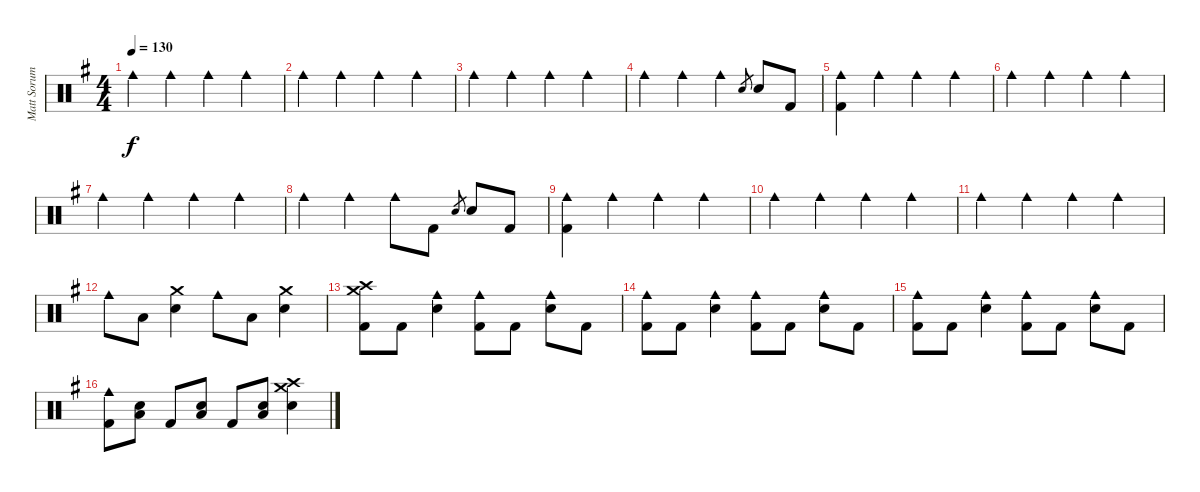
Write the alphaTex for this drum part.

\track ("Matt Sorum - Drums" "Matt Sorum") {instrument percussion}
\staff {score}
\articulation defaults
\ts (4 4)
\tempo 130
\clef neutral
\ks g "Cowbell medium (hit)".4{dy f} "Cowbell medium (hit)".4 "Cowbell medium (hit)".4 "Cowbell medium (hit)".4
|
"Cowbell medium (hit)".4 "Cowbell medium (hit)".4 "Cowbell medium (hit)".4 "Cowbell medium (hit)".4 |
"Cowbell medium (hit)".4 "Cowbell medium (hit)".4 "Cowbell medium (hit)".4 "Cowbell medium (hit)".4 |
"Cowbell medium (hit)".4 "Cowbell medium (hit)".4 "Cowbell medium (hit)".4 "Snare (hit) 2".8{gr} "Snare (hit) 2".8 "Kick (hit) 2".8 |
("Cowbell medium (hit)" "Kick (hit) 2").4 "Cowbell medium (hit)".4 "Cowbell medium (hit)".4 "Cowbell medium (hit)".4 |
"Cowbell medium (hit)".4 "Cowbell medium (hit)".4 "Cowbell medium (hit)".4 "Cowbell medium (hit)".4 |
"Cowbell medium (hit)".4 "Cowbell medium (hit)".4 "Cowbell medium (hit)".4 "Cowbell medium (hit)".4 |
"Cowbell medium (hit)".4 "Cowbell medium (hit)".4 "Cowbell medium (hit)".8 "Kick (hit) 2".8 "Snare (hit) 2".8{gr} "Snare (hit) 2".8 "Kick (hit) 2".8 |
("Cowbell medium (hit)" "Kick (hit) 2").4 "Cowbell medium (hit)".4 "Cowbell medium (hit)".4 "Cowbell medium (hit)".4 |
"Cowbell medium (hit)".4 "Cowbell medium (hit)".4 "Cowbell medium (hit)".4 "Cowbell medium (hit)".4 |
"Cowbell medium (hit)".4 "Cowbell medium (hit)".4 "Cowbell medium (hit)".4 "Cowbell medium (hit)".4 |
"Cowbell medium (hit)".8 "Low Tom (hit)".8 ("Crash medium (hit)" "Snare (hit) 2").4 "Cowbell medium (hit)".8 "Low Tom (hit)".8 ("Crash medium (hit)" "Snare (hit) 2").4 |
("Crash medium (hit)" "Crash high (hit)" "Kick (hit) 2").8 "Kick (hit) 2".8 ("Cowbell medium (hit)" "Snare (hit) 2").4 ("Cowbell medium (hit)" "Kick (hit) 2").8 "Kick (hit) 2".8 ("Cowbell medium (hit)" "Snare (hit) 2").8 "Kick (hit) 2".8 |
("Cowbell medium (hit)" "Kick (hit) 2").8 "Kick (hit) 2".8 ("Cowbell medium (hit)" "Snare (hit) 2").4 ("Cowbell medium (hit)" "Kick (hit) 2").8 "Kick (hit) 2".8 ("Cowbell medium (hit)" "Snare (hit) 2").8 "Kick (hit) 2".8 |
("Cowbell medium (hit)" "Kick (hit) 2").8 "Kick (hit) 2".8 ("Cowbell medium (hit)" "Snare (hit) 2").4 ("Cowbell medium (hit)" "Kick (hit) 2").8 "Kick (hit) 2".8 ("Cowbell medium (hit)" "Snare (hit) 2").8 "Kick (hit) 2".8 |
("Cowbell medium (hit)" "Kick (hit) 2").8 ("Low Tom (hit)" "Snare (hit) 2").8 "Kick (hit) 2".8 ("Low Tom (hit)" "Snare (hit) 2").8 "Kick (hit) 2".8 ("Low Tom (hit)" "Snare (hit) 2").8 ("Crash medium (hit)" "Crash high (hit)" "Snare (hit) 2").4
